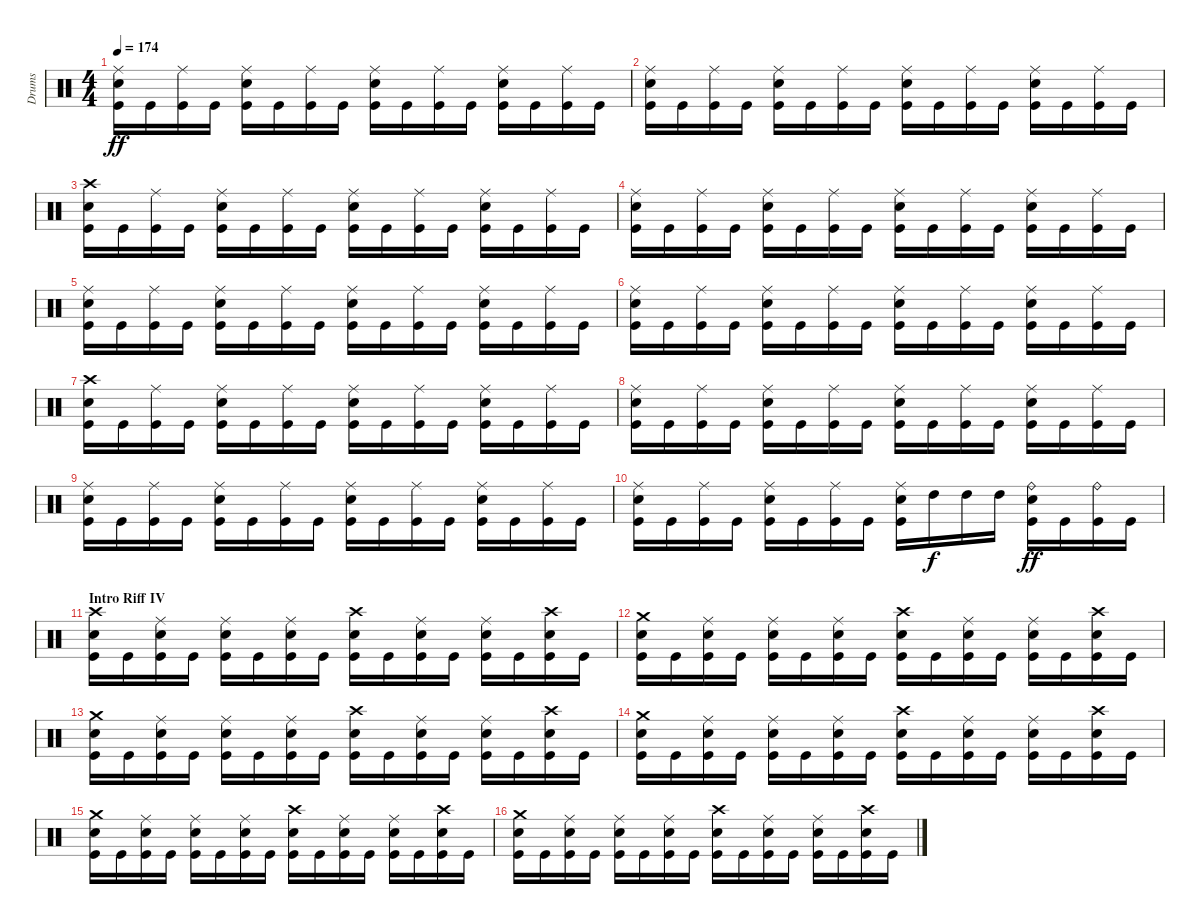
\track ("Drums" "Drums") {instrument percussion}
\staff {score}
\articulation defaults
\ts (4 4)
\tempo 174
\clef neutral
\ks c
("Ride (middle)" "Electric Snare (hit)" "Kick (hit)").16{dy ff} "Kick (hit)".16 ("Ride (middle)" "Kick (hit)").16 "Kick (hit)".16 ("Ride (middle)" "Electric Snare (hit)" "Kick (hit)").16 "Kick (hit)".16 ("Ride (middle)" "Kick (hit)").16 "Kick (hit)".16 ("Ride (middle)" "Electric Snare (hit)" "Kick (hit)").16 "Kick (hit)".16 ("Ride (middle)" "Kick (hit)").16 "Kick (hit)".16 ("Ride (middle)" "Electric Snare (hit)" "Kick (hit)").16 "Kick (hit)".16 ("Ride (middle)" "Kick (hit)").16 "Kick (hit)".16 |
("Ride (middle)" "Electric Snare (hit)" "Kick (hit)").16 "Kick (hit)".16 ("Ride (middle)" "Kick (hit)").16 "Kick (hit)".16 ("Ride (middle)" "Electric Snare (hit)" "Kick (hit)").16 "Kick (hit)".16 ("Ride (middle)" "Kick (hit)").16 "Kick (hit)".16 ("Ride (middle)" "Electric Snare (hit)" "Kick (hit)").16 "Kick (hit)".16 ("Ride (middle)" "Kick (hit)").16 "Kick (hit)".16 ("Ride (middle)" "Electric Snare (hit)" "Kick (hit)").16 "Kick (hit)".16 ("Ride (middle)" "Kick (hit)").16 "Kick (hit)".16 |
("Crash high (hit)" "Electric Snare (hit)" "Kick (hit)").16 "Kick (hit)".16 ("Ride (middle)" "Kick (hit)").16 "Kick (hit)".16 ("Ride (middle)" "Electric Snare (hit)" "Kick (hit)").16 "Kick (hit)".16 ("Ride (middle)" "Kick (hit)").16 "Kick (hit)".16 ("Ride (middle)" "Electric Snare (hit)" "Kick (hit)").16 "Kick (hit)".16 ("Ride (middle)" "Kick (hit)").16 "Kick (hit)".16 ("Ride (middle)" "Electric Snare (hit)" "Kick (hit)").16 "Kick (hit)".16 ("Ride (middle)" "Kick (hit)").16 "Kick (hit)".16 |
("Ride (middle)" "Electric Snare (hit)" "Kick (hit)").16 "Kick (hit)".16 ("Ride (middle)" "Kick (hit)").16 "Kick (hit)".16 ("Ride (middle)" "Electric Snare (hit)" "Kick (hit)").16 "Kick (hit)".16 ("Ride (middle)" "Kick (hit)").16 "Kick (hit)".16 ("Ride (middle)" "Electric Snare (hit)" "Kick (hit)").16 "Kick (hit)".16 ("Ride (middle)" "Kick (hit)").16 "Kick (hit)".16 ("Ride (middle)" "Electric Snare (hit)" "Kick (hit)").16 "Kick (hit)".16 ("Ride (middle)" "Kick (hit)").16 "Kick (hit)".16 |
("Ride (middle)" "Electric Snare (hit)" "Kick (hit)").16 "Kick (hit)".16 ("Ride (middle)" "Kick (hit)").16 "Kick (hit)".16 ("Ride (middle)" "Electric Snare (hit)" "Kick (hit)").16 "Kick (hit)".16 ("Ride (middle)" "Kick (hit)").16 "Kick (hit)".16 ("Ride (middle)" "Electric Snare (hit)" "Kick (hit)").16 "Kick (hit)".16 ("Ride (middle)" "Kick (hit)").16 "Kick (hit)".16 ("Ride (middle)" "Electric Snare (hit)" "Kick (hit)").16 "Kick (hit)".16 ("Ride (middle)" "Kick (hit)").16 "Kick (hit)".16 |
("Ride (middle)" "Electric Snare (hit)" "Kick (hit)").16 "Kick (hit)".16 ("Ride (middle)" "Kick (hit)").16 "Kick (hit)".16 ("Ride (middle)" "Electric Snare (hit)" "Kick (hit)").16 "Kick (hit)".16 ("Ride (middle)" "Kick (hit)").16 "Kick (hit)".16 ("Ride (middle)" "Electric Snare (hit)" "Kick (hit)").16 "Kick (hit)".16 ("Ride (middle)" "Kick (hit)").16 "Kick (hit)".16 ("Ride (middle)" "Electric Snare (hit)" "Kick (hit)").16 "Kick (hit)".16 ("Ride (middle)" "Kick (hit)").16 "Kick (hit)".16 |
("Crash high (hit)" "Electric Snare (hit)" "Kick (hit)").16 "Kick (hit)".16 ("Ride (middle)" "Kick (hit)").16 "Kick (hit)".16 ("Ride (middle)" "Electric Snare (hit)" "Kick (hit)").16 "Kick (hit)".16 ("Ride (middle)" "Kick (hit)").16 "Kick (hit)".16 ("Ride (middle)" "Electric Snare (hit)" "Kick (hit)").16 "Kick (hit)".16 ("Ride (middle)" "Kick (hit)").16 "Kick (hit)".16 ("Ride (middle)" "Electric Snare (hit)" "Kick (hit)").16 "Kick (hit)".16 ("Ride (middle)" "Kick (hit)").16 "Kick (hit)".16 |
("Ride (middle)" "Electric Snare (hit)" "Kick (hit)").16 "Kick (hit)".16 ("Ride (middle)" "Kick (hit)").16 "Kick (hit)".16 ("Ride (middle)" "Electric Snare (hit)" "Kick (hit)").16 "Kick (hit)".16 ("Ride (middle)" "Kick (hit)").16 "Kick (hit)".16 ("Ride (middle)" "Electric Snare (hit)" "Kick (hit)").16 "Kick (hit)".16 ("Ride (middle)" "Kick (hit)").16 "Kick (hit)".16 ("Ride (middle)" "Electric Snare (hit)" "Kick (hit)").16 "Kick (hit)".16 ("Ride (middle)" "Kick (hit)").16 "Kick (hit)".16 |
("Ride (middle)" "Electric Snare (hit)" "Kick (hit)").16 "Kick (hit)".16 ("Ride (middle)" "Kick (hit)").16 "Kick (hit)".16 ("Ride (middle)" "Electric Snare (hit)" "Kick (hit)").16 "Kick (hit)".16 ("Ride (middle)" "Kick (hit)").16 "Kick (hit)".16 ("Ride (middle)" "Electric Snare (hit)" "Kick (hit)").16 "Kick (hit)".16 ("Ride (middle)" "Kick (hit)").16 "Kick (hit)".16 ("Ride (middle)" "Electric Snare (hit)" "Kick (hit)").16 "Kick (hit)".16 ("Ride (middle)" "Kick (hit)").16 "Kick (hit)".16 |
("Ride (middle)" "Electric Snare (hit)" "Kick (hit)").16 "Kick (hit)".16 ("Ride (middle)" "Kick (hit)").16 "Kick (hit)".16 ("Ride (middle)" "Electric Snare (hit)" "Kick (hit)").16 "Kick (hit)".16 ("Ride (middle)" "Kick (hit)").16 "Kick (hit)".16 ("Ride (middle)" "Electric Snare (hit)" "Kick (hit)").16 "High Tom (hit)".16{dy f} "High Tom (hit)".16 "High Tom (hit)".16 ("Ride (bell)" "Electric Snare (hit)" "Kick (hit)").16{dy ff} "Kick (hit)".16 ("Ride (bell)" "Kick (hit)").16 "Kick (hit)".16 |
\section ("" "Intro Riff IV")
("Crash high (hit)" "Electric Snare (hit)" "Kick (hit)").16 "Kick (hit)".16 ("Ride (middle)" "Electric Snare (hit)" "Kick (hit)").16 "Kick (hit)".16 ("Ride (middle)" "Electric Snare (hit)" "Kick (hit)").16 "Kick (hit)".16 ("Ride (middle)" "Electric Snare (hit)" "Kick (hit)").16 "Kick (hit)".16 ("Crash high (hit)" "Electric Snare (hit)" "Kick (hit)").16 "Kick (hit)".16 ("Ride (middle)" "Electric Snare (hit)" "Kick (hit)").16 "Kick (hit)".16 ("Ride (middle)" "Electric Snare (hit)" "Kick (hit)").16 "Kick (hit)".16 ("Crash high (hit)" "Electric Snare (hit)" "Kick (hit)").16 "Kick (hit)".16 |
("Crash medium (hit)" "Electric Snare (hit)" "Kick (hit)").16 "Kick (hit)".16 ("Ride (middle)" "Electric Snare (hit)" "Kick (hit)").16 "Kick (hit)".16 ("Ride (middle)" "Electric Snare (hit)" "Kick (hit)").16 "Kick (hit)".16 ("Ride (middle)" "Electric Snare (hit)" "Kick (hit)").16 "Kick (hit)".16 ("Crash high (hit)" "Electric Snare (hit)" "Kick (hit)").16 "Kick (hit)".16 ("Ride (middle)" "Electric Snare (hit)" "Kick (hit)").16 "Kick (hit)".16 ("Ride (middle)" "Electric Snare (hit)" "Kick (hit)").16 "Kick (hit)".16 ("Crash high (hit)" "Electric Snare (hit)" "Kick (hit)").16 "Kick (hit)".16 |
("Crash medium (hit)" "Electric Snare (hit)" "Kick (hit)").16 "Kick (hit)".16 ("Ride (middle)" "Electric Snare (hit)" "Kick (hit)").16 "Kick (hit)".16 ("Ride (middle)" "Electric Snare (hit)" "Kick (hit)").16 "Kick (hit)".16 ("Ride (middle)" "Electric Snare (hit)" "Kick (hit)").16 "Kick (hit)".16 ("Crash high (hit)" "Electric Snare (hit)" "Kick (hit)").16 "Kick (hit)".16 ("Ride (middle)" "Electric Snare (hit)" "Kick (hit)").16 "Kick (hit)".16 ("Ride (middle)" "Electric Snare (hit)" "Kick (hit)").16 "Kick (hit)".16 ("Crash high (hit)" "Electric Snare (hit)" "Kick (hit)").16 "Kick (hit)".16 |
("Crash medium (hit)" "Electric Snare (hit)" "Kick (hit)").16 "Kick (hit)".16 ("Ride (middle)" "Electric Snare (hit)" "Kick (hit)").16 "Kick (hit)".16 ("Ride (middle)" "Electric Snare (hit)" "Kick (hit)").16 "Kick (hit)".16 ("Ride (middle)" "Electric Snare (hit)" "Kick (hit)").16 "Kick (hit)".16 ("Crash high (hit)" "Electric Snare (hit)" "Kick (hit)").16 "Kick (hit)".16 ("Ride (middle)" "Electric Snare (hit)" "Kick (hit)").16 "Kick (hit)".16 ("Ride (middle)" "Electric Snare (hit)" "Kick (hit)").16 "Kick (hit)".16 ("Crash high (hit)" "Electric Snare (hit)" "Kick (hit)").16 "Kick (hit)".16 |
("Crash medium (hit)" "Electric Snare (hit)" "Kick (hit)").16 "Kick (hit)".16 ("Ride (middle)" "Electric Snare (hit)" "Kick (hit)").16 "Kick (hit)".16 ("Ride (middle)" "Electric Snare (hit)" "Kick (hit)").16 "Kick (hit)".16 ("Ride (middle)" "Electric Snare (hit)" "Kick (hit)").16 "Kick (hit)".16 ("Crash high (hit)" "Electric Snare (hit)" "Kick (hit)").16 "Kick (hit)".16 ("Ride (middle)" "Electric Snare (hit)" "Kick (hit)").16 "Kick (hit)".16 ("Ride (middle)" "Electric Snare (hit)" "Kick (hit)").16 "Kick (hit)".16 ("Crash high (hit)" "Electric Snare (hit)" "Kick (hit)").16 "Kick (hit)".16 |
("Crash medium (hit)" "Electric Snare (hit)" "Kick (hit)").16 "Kick (hit)".16 ("Ride (middle)" "Electric Snare (hit)" "Kick (hit)").16 "Kick (hit)".16 ("Ride (middle)" "Electric Snare (hit)" "Kick (hit)").16 "Kick (hit)".16 ("Ride (middle)" "Electric Snare (hit)" "Kick (hit)").16 "Kick (hit)".16 ("Crash high (hit)" "Electric Snare (hit)" "Kick (hit)").16 "Kick (hit)".16 ("Ride (middle)" "Electric Snare (hit)" "Kick (hit)").16 "Kick (hit)".16 ("Ride (middle)" "Electric Snare (hit)" "Kick (hit)").16 "Kick (hit)".16 ("Crash high (hit)" "Electric Snare (hit)" "Kick (hit)").16 "Kick (hit)".16
